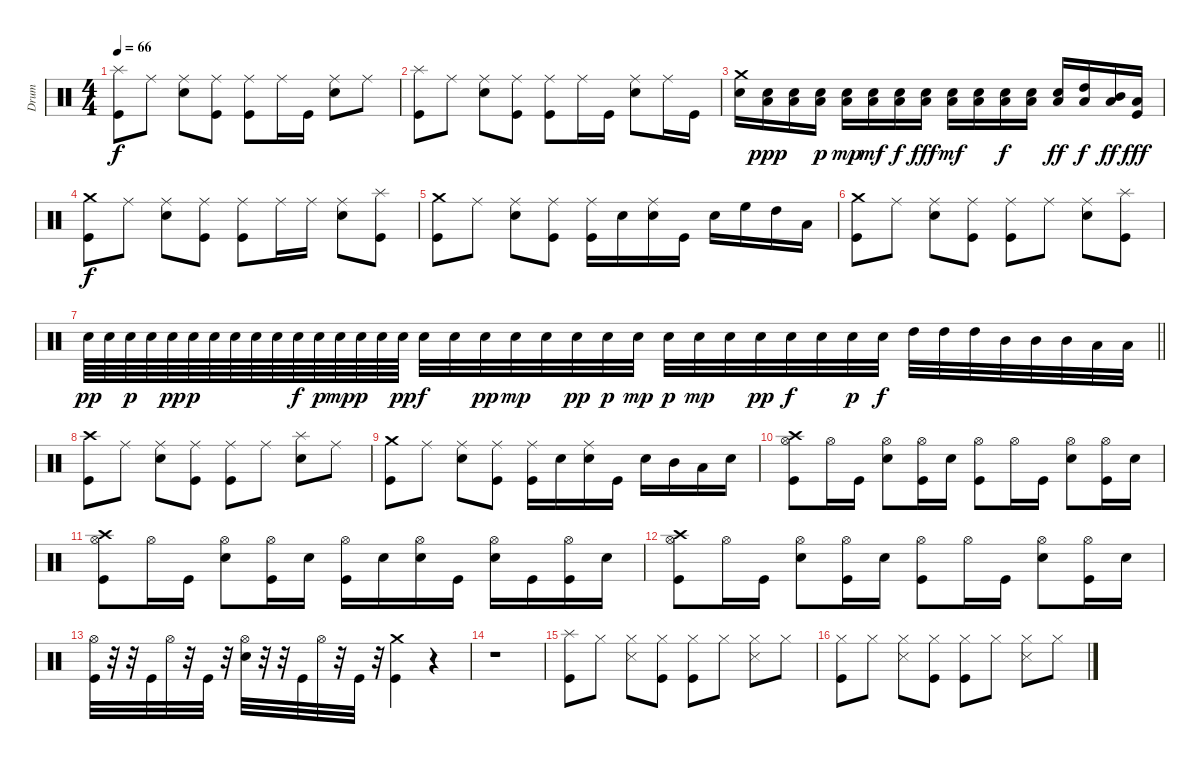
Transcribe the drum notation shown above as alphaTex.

\track ("Drum" "Drum") {instrument percussion}
\staff {score}
\articulation defaults
\ts (4 4)
\tempo 66
\clef neutral
\ks c
("Splash (hit)" "Kick (hit)").8{dy f} "Ride (middle)".8 ("Ride (middle)" "Snare (hit) 2").8 ("Ride (middle)" "Kick (hit)").8 ("Ride (middle)" "Kick (hit)").8 "Ride (middle)".16 "Kick (hit)".16 ("Ride (middle)" "Snare (hit) 2").8 "Ride (middle)".8 |
("Splash (hit)" "Kick (hit)").8 "Ride (middle)".8 ("Ride (middle)" "Snare (hit) 2").8 ("Ride (middle)" "Kick (hit)").8 ("Ride (middle)" "Kick (hit)").8 "Ride (middle)".16 "Kick (hit)".16 ("Ride (middle)" "Snare (hit) 2").8 "Ride (middle)".16 "Kick (hit)".16 |
("Crash medium (hit)" "Snare (hit) 2").16 ("Snare (hit) 2" "Low Tom (hit)").16{dy ppp} ("Snare (hit) 2" "Low Tom (hit)").16 ("Snare (hit) 2" "Low Tom (hit)").16{dy p} ("Snare (hit) 2" "Low Tom (hit)").16{dy mp} ("Snare (hit) 2" "Low Tom (hit)").16{dy mf} ("Snare (hit) 2" "Low Tom (hit)").16{dy f} ("Snare (hit) 2" "Low Tom (hit)").16{dy fff} ("Snare (hit) 2" "Low Tom (hit)").16{dy mf} ("Snare (hit) 2" "Low Tom (hit)").16 ("Snare (hit) 2" "Low Tom (hit)").16{dy f} ("Snare (hit) 2" "Low Tom (hit)").16 ("Snare (hit) 2" "Low Tom (hit)").16{dy ff} ("High Tom (hit)" "Low Tom (hit)").16{dy f} ("Mid Tom (hit)" "Low Tom (hit)").16{dy ff} ("Low Tom (hit)" "Kick (hit)").16{dy fff} |
("Crash medium (hit)" "Kick (hit)").8{txt "" dy f} "Ride (middle)".8 ("Ride (middle)" "Snare (hit) 2").8 ("Ride (middle)" "Kick (hit)").8 ("Ride (middle)" "Kick (hit)").8 "Ride (middle)".16 "Ride (middle)".16 ("Ride (middle)" "Snare (hit) 2").8 ("Splash (hit)" "Kick (hit)").8 |
("Crash medium (hit)" "Kick (hit)").8 "Ride (middle)".8 ("Ride (middle)" "Snare (hit) 2").8 ("Ride (middle)" "Kick (hit)").8 ("Ride (middle)" "Kick (hit)").16 "Snare (hit) 2".16 ("Ride (middle)" "Snare (hit) 2").16 "Kick (hit)".16 "Snare (hit) 2".16 "High Floor Tom (hit)".16 "High Tom (hit)".16 "Low Tom (hit)".16 |
("Crash medium (hit)" "Kick (hit)").8 "Ride (middle)".8 ("Ride (middle)" "Snare (hit) 2").8 ("Ride (middle)" "Kick (hit)").8 ("Ride (middle)" "Kick (hit)").8 "Ride (middle)".8 ("Ride (middle)" "Snare (hit) 2").8 ("Splash (hit)" "Kick (hit)").8 |
\barLineRight lightlight "Snare (hit) 2".64{dy pp} "Snare (hit) 2".64 "Snare (hit) 2".64{dy p} "Snare (hit) 2".64 "Snare (hit) 2".64{dy pp} "Snare (hit) 2".64{dy p} "Snare (hit) 2".64 "Snare (hit) 2".64 "Snare (hit) 2".64 "Snare (hit) 2".64 "Snare (hit) 2".64{dy f} "Snare (hit) 2".64{dy p} "Snare (hit) 2".64{dy mp} "Snare (hit) 2".64{dy p} "Snare (hit) 2".64 "Snare (hit) 2".64{dy pp} "Snare (hit) 2".32{dy f} "Snare (hit) 2".32 "Snare (hit) 2".32{dy pp} "Snare (hit) 2".32{dy mp} "Snare (hit) 2".32 "Snare (hit) 2".32{dy pp} "Snare (hit) 2".32{dy p} "Snare (hit) 2".32{dy mp} "Snare (hit) 2".32{dy p} "Snare (hit) 2".32{dy mp} "Snare (hit) 2".32 "Snare (hit) 2".32{dy pp} "Snare (hit) 2".32{dy f} "Snare (hit) 2".32 "Snare (hit) 2".32{dy p} "Snare (hit) 2".32{dy f} "High Tom (hit)".32 "High Tom (hit)".32 "High Tom (hit)".32 "Mid Tom (hit)".32 "Mid Tom (hit)".32 "Mid Tom (hit)".32 "Low Tom (hit)".32 "Low Tom (hit)".32
|
("Crash high (hit)" "Kick (hit)").8 "Ride (middle)".8 ("Ride (middle)" "Snare (hit) 2").8 ("Ride (middle)" "Kick (hit)").8 ("Ride (middle)" "Kick (hit)").8 "Ride (middle)".8 ("Splash (hit)" "Snare (hit) 2").8 "Ride (middle)".8 |
("Crash medium (hit)" "Kick (hit)").8 "Ride (middle)".8 ("Ride (middle)" "Snare (hit) 2").8 ("Ride (middle)" "Kick (hit)").8 ("Ride (middle)" "Kick (hit)").16 "Snare (hit) 2".16 ("Ride (middle)" "Snare (hit) 2").16 "Kick (hit)".16 "Snare (hit) 2".16 "Mid Tom (hit)".16 "Low Tom (hit)".16 "Snare (hit) 2".16 |
("Hi-Hat (open)" "Crash high (hit)" "Kick (hit)").8 "Hi-Hat (open)".16 "Kick (hit)".16 ("Hi-Hat (open)" "Snare (hit) 2").8 ("Hi-Hat (open)" "Kick (hit)").16 "Snare (hit) 2".16 ("Hi-Hat (open)" "Kick (hit)").8 "Hi-Hat (open)".16 "Kick (hit)".16 ("Hi-Hat (open)" "Snare (hit) 2").8 ("Hi-Hat (open)" "Kick (hit)").16 "Snare (hit) 2".16 |
("Hi-Hat (open)" "Crash high (hit)" "Kick (hit)").8 "Hi-Hat (open)".16 "Kick (hit)".16 ("Hi-Hat (open)" "Snare (hit) 2").8 ("Hi-Hat (open)" "Kick (hit)").16 "Snare (hit) 2".16 ("Hi-Hat (open)" "Kick (hit)").16 "Snare (hit) 2".16 ("Hi-Hat (open)" "Snare (hit) 2").16 "Kick (hit)".16 ("Hi-Hat (open)" "Snare (hit) 2").16 "Kick (hit)".16 ("Hi-Hat (open)" "Kick (hit)").16 "Snare (hit) 2".16 |
("Hi-Hat (open)" "Crash high (hit)" "Kick (hit)").8 "Hi-Hat (open)".16 "Kick (hit)".16 ("Hi-Hat (open)" "Snare (hit) 2").8 ("Hi-Hat (open)" "Kick (hit)").16 "Snare (hit) 2".16 ("Hi-Hat (open)" "Kick (hit)").8 "Hi-Hat (open)".16 "Kick (hit)".16 ("Hi-Hat (open)" "Snare (hit) 2").8 ("Hi-Hat (open)" "Kick (hit)").16 "Snare (hit) 2".16 |
("Hi-Hat (open)" "Kick (hit)").32 r.32 r.32 "Kick (hit)".32 "Hi-Hat (open)".32 r.32 "Kick (hit)".32 r.32 ("Hi-Hat (open)" "Snare (hit) 2").32 r.32 r.32 "Kick (hit)".32 "Hi-Hat (open)".32 r.32 "Kick (hit)".32 r.32 ("Crash medium (hit)" "Kick (hit)").4 r.4 |
r.1 |
("Splash (hit)" "Kick (hit)").8 "Hi-Hat (closed)".8 ("Hi-Hat (closed)" "Snare (side stick) 3").8 ("Hi-Hat (closed)" "Kick (hit)").8 ("Hi-Hat (closed)" "Kick (hit)").8 "Hi-Hat (closed)".8 ("Hi-Hat (closed)" "Snare (side stick) 3").8 "Hi-Hat (closed)".8 |
("Hi-Hat (closed)" "Kick (hit)").8 "Hi-Hat (closed)".8 ("Hi-Hat (closed)" "Snare (side stick) 3").8 ("Hi-Hat (closed)" "Kick (hit)").8 ("Hi-Hat (closed)" "Kick (hit)").8 "Hi-Hat (closed)".8 ("Hi-Hat (closed)" "Snare (side stick) 3").8 "Hi-Hat (closed)".8
